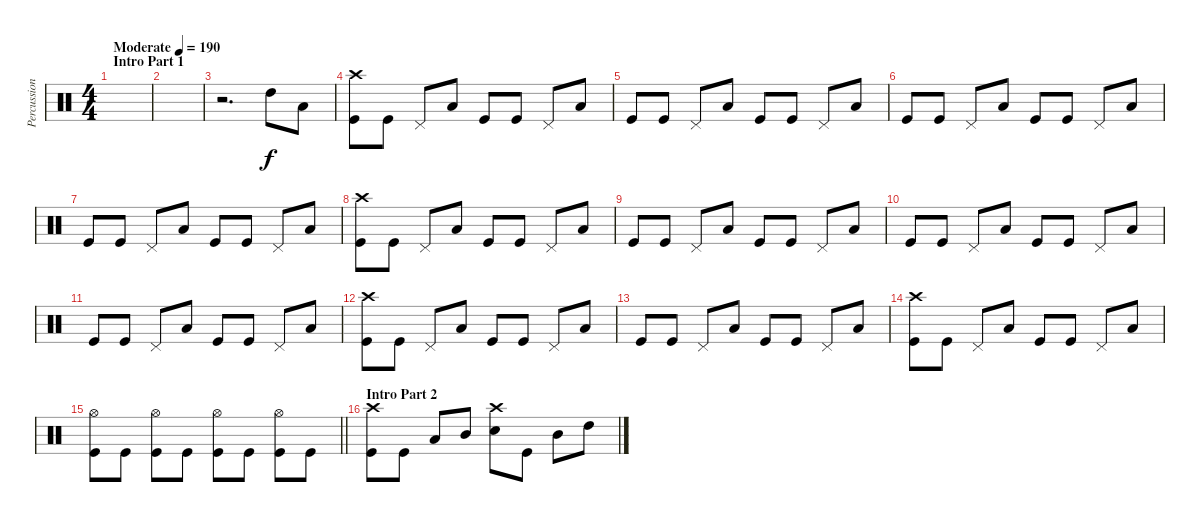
\track ("Percussion" "Percussion") {instrument percussion}
\staff {score}
\articulation defaults
\ts (4 4)
\section ("" "Intro Part 1")
\tempo (190 "Moderate")
\clef neutral
\ks c
|
|
r.2{d} "High Tom (hit)".8 "Low Tom (hit)".8 |
("Crash high (hit)" "Kick (hit)").8 "Kick (hit)".8 "Pedal Hi-Hat (hit)".8 "Low Tom (hit)".8 "Kick (hit)".8 "Kick (hit)".8 "Pedal Hi-Hat (hit)".8 "Low Tom (hit)".8 |
"Kick (hit)".8 "Kick (hit)".8 "Pedal Hi-Hat (hit)".8 "Low Tom (hit)".8 "Kick (hit)".8 "Kick (hit)".8 "Pedal Hi-Hat (hit)".8 "Low Tom (hit)".8 |
"Kick (hit)".8 "Kick (hit)".8 "Pedal Hi-Hat (hit)".8 "Low Tom (hit)".8 "Kick (hit)".8 "Kick (hit)".8 "Pedal Hi-Hat (hit)".8 "Low Tom (hit)".8 |
"Kick (hit)".8 "Kick (hit)".8 "Pedal Hi-Hat (hit)".8 "Low Tom (hit)".8 "Kick (hit)".8 "Kick (hit)".8 "Pedal Hi-Hat (hit)".8 "Low Tom (hit)".8 |
("Crash high (hit)" "Kick (hit)").8 "Kick (hit)".8 "Pedal Hi-Hat (hit)".8 "Low Tom (hit)".8 "Kick (hit)".8 "Kick (hit)".8 "Pedal Hi-Hat (hit)".8 "Low Tom (hit)".8 |
"Kick (hit)".8 "Kick (hit)".8 "Pedal Hi-Hat (hit)".8 "Low Tom (hit)".8 "Kick (hit)".8 "Kick (hit)".8 "Pedal Hi-Hat (hit)".8 "Low Tom (hit)".8 |
"Kick (hit)".8 "Kick (hit)".8 "Pedal Hi-Hat (hit)".8 "Low Tom (hit)".8 "Kick (hit)".8 "Kick (hit)".8 "Pedal Hi-Hat (hit)".8 "Low Tom (hit)".8 |
"Kick (hit)".8 "Kick (hit)".8 "Pedal Hi-Hat (hit)".8 "Low Tom (hit)".8 "Kick (hit)".8 "Kick (hit)".8 "Pedal Hi-Hat (hit)".8 "Low Tom (hit)".8 |
("Crash high (hit)" "Kick (hit)").8 "Kick (hit)".8 "Pedal Hi-Hat (hit)".8 "Low Tom (hit)".8 "Kick (hit)".8 "Kick (hit)".8 "Pedal Hi-Hat (hit)".8 "Low Tom (hit)".8 |
"Kick (hit)".8 "Kick (hit)".8 "Pedal Hi-Hat (hit)".8 "Low Tom (hit)".8 "Kick (hit)".8 "Kick (hit)".8 "Pedal Hi-Hat (hit)".8 "Low Tom (hit)".8 |
("Crash high (hit)" "Kick (hit)").8 "Kick (hit)".8 "Pedal Hi-Hat (hit)".8 "Low Tom (hit)".8 "Kick (hit)".8 "Kick (hit)".8 "Pedal Hi-Hat (hit)".8 "Low Tom (hit)".8 |
\barLineRight lightlight
("Hi-Hat (open)" "Kick (hit)").8 "Kick (hit)".8 ("Hi-Hat (open)" "Kick (hit)").8 "Kick (hit)".8 ("Hi-Hat (open)" "Kick (hit)").8 "Kick (hit)".8 ("Hi-Hat (open)" "Kick (hit)").8 "Kick (hit)".8 |
\section ("" "Intro Part 2")
("Crash high (hit)" "Kick (hit)").8 "Kick (hit)".8 "Low Tom (hit)".8 "Mid Tom (hit)".8 ("Crash high (hit)" "Snare (hit) 2").8 "Kick (hit)".8 "Mid Tom (hit)".8 "High Tom (hit)".8
